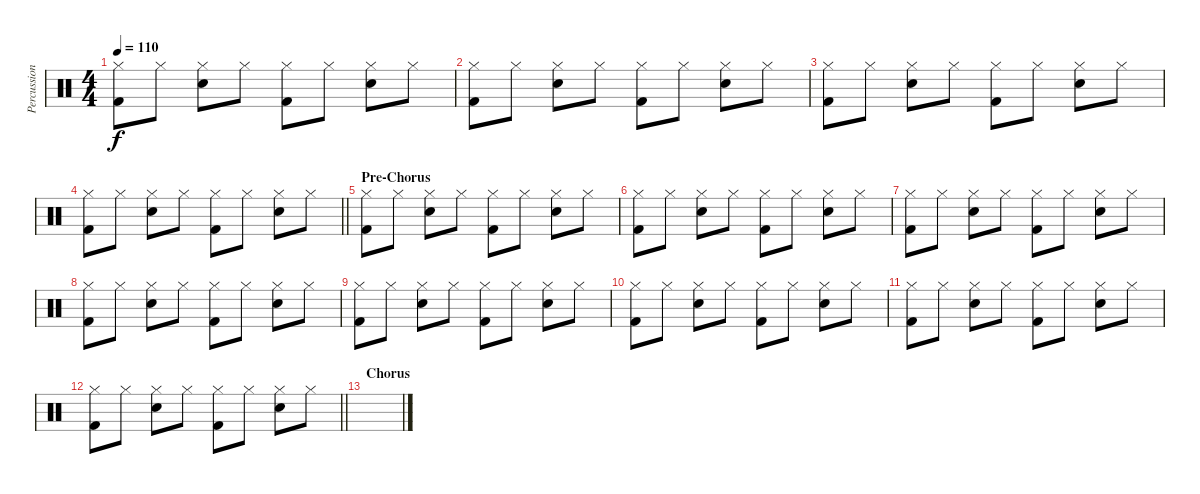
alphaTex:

\track ("Percussion" "Percussion") {instrument percussion}
\staff {score}
\articulation defaults
\ts (4 4)
\tempo 110
\clef neutral
\ks c
("Hi-Hat (closed)" "Kick (hit) 2").8{dy f} "Hi-Hat (closed)".8 ("Hi-Hat (closed)" "Electric Snare (hit)").8 "Hi-Hat (closed)".8 ("Hi-Hat (closed)" "Kick (hit) 2").8 "Hi-Hat (closed)".8 ("Hi-Hat (closed)" "Electric Snare (hit)").8 "Hi-Hat (closed)".8 |
("Hi-Hat (closed)" "Kick (hit) 2").8 "Hi-Hat (closed)".8 ("Hi-Hat (closed)" "Electric Snare (hit)").8 "Hi-Hat (closed)".8 ("Hi-Hat (closed)" "Kick (hit) 2").8 "Hi-Hat (closed)".8 ("Hi-Hat (closed)" "Electric Snare (hit)").8 "Hi-Hat (closed)".8 |
("Hi-Hat (closed)" "Kick (hit) 2").8 "Hi-Hat (closed)".8 ("Hi-Hat (closed)" "Electric Snare (hit)").8 "Hi-Hat (closed)".8 ("Hi-Hat (closed)" "Kick (hit) 2").8 "Hi-Hat (closed)".8 ("Hi-Hat (closed)" "Electric Snare (hit)").8 "Hi-Hat (closed)".8 |
\barLineRight lightlight
("Hi-Hat (closed)" "Kick (hit) 2").8 "Hi-Hat (closed)".8 ("Hi-Hat (closed)" "Electric Snare (hit)").8 "Hi-Hat (closed)".8 ("Hi-Hat (closed)" "Kick (hit) 2").8 "Hi-Hat (closed)".8 ("Hi-Hat (closed)" "Electric Snare (hit)").8 "Hi-Hat (closed)".8 |
\section ("" "Pre-Chorus")
("Hi-Hat (closed)" "Kick (hit) 2").8 "Hi-Hat (closed)".8 ("Hi-Hat (closed)" "Electric Snare (hit)").8 "Hi-Hat (closed)".8 ("Hi-Hat (closed)" "Kick (hit) 2").8 "Hi-Hat (closed)".8 ("Hi-Hat (closed)" "Electric Snare (hit)").8 "Hi-Hat (closed)".8 |
("Hi-Hat (closed)" "Kick (hit) 2").8 "Hi-Hat (closed)".8 ("Hi-Hat (closed)" "Electric Snare (hit)").8 "Hi-Hat (closed)".8 ("Hi-Hat (closed)" "Kick (hit) 2").8 "Hi-Hat (closed)".8 ("Hi-Hat (closed)" "Electric Snare (hit)").8 "Hi-Hat (closed)".8 |
("Hi-Hat (closed)" "Kick (hit) 2").8 "Hi-Hat (closed)".8 ("Hi-Hat (closed)" "Electric Snare (hit)").8 "Hi-Hat (closed)".8 ("Hi-Hat (closed)" "Kick (hit) 2").8 "Hi-Hat (closed)".8 ("Hi-Hat (closed)" "Electric Snare (hit)").8 "Hi-Hat (closed)".8 |
("Hi-Hat (closed)" "Kick (hit) 2").8 "Hi-Hat (closed)".8 ("Hi-Hat (closed)" "Electric Snare (hit)").8 "Hi-Hat (closed)".8 ("Hi-Hat (closed)" "Kick (hit) 2").8 "Hi-Hat (closed)".8 ("Hi-Hat (closed)" "Electric Snare (hit)").8 "Hi-Hat (closed)".8 |
("Hi-Hat (closed)" "Kick (hit) 2").8 "Hi-Hat (closed)".8 ("Hi-Hat (closed)" "Electric Snare (hit)").8 "Hi-Hat (closed)".8 ("Hi-Hat (closed)" "Kick (hit) 2").8 "Hi-Hat (closed)".8 ("Hi-Hat (closed)" "Electric Snare (hit)").8 "Hi-Hat (closed)".8 |
("Hi-Hat (closed)" "Kick (hit) 2").8 "Hi-Hat (closed)".8 ("Hi-Hat (closed)" "Electric Snare (hit)").8 "Hi-Hat (closed)".8 ("Hi-Hat (closed)" "Kick (hit) 2").8 "Hi-Hat (closed)".8 ("Hi-Hat (closed)" "Electric Snare (hit)").8 "Hi-Hat (closed)".8 |
("Hi-Hat (closed)" "Kick (hit) 2").8 "Hi-Hat (closed)".8 ("Hi-Hat (closed)" "Electric Snare (hit)").8 "Hi-Hat (closed)".8 ("Hi-Hat (closed)" "Kick (hit) 2").8 "Hi-Hat (closed)".8 ("Hi-Hat (closed)" "Electric Snare (hit)").8 "Hi-Hat (closed)".8 |
\barLineRight lightlight
("Hi-Hat (closed)" "Kick (hit) 2").8 "Hi-Hat (closed)".8 ("Hi-Hat (closed)" "Electric Snare (hit)").8 "Hi-Hat (closed)".8 ("Hi-Hat (closed)" "Kick (hit) 2").8 "Hi-Hat (closed)".8 ("Hi-Hat (closed)" "Electric Snare (hit)").8 "Hi-Hat (closed)".8 |
\section ("" "Chorus")
